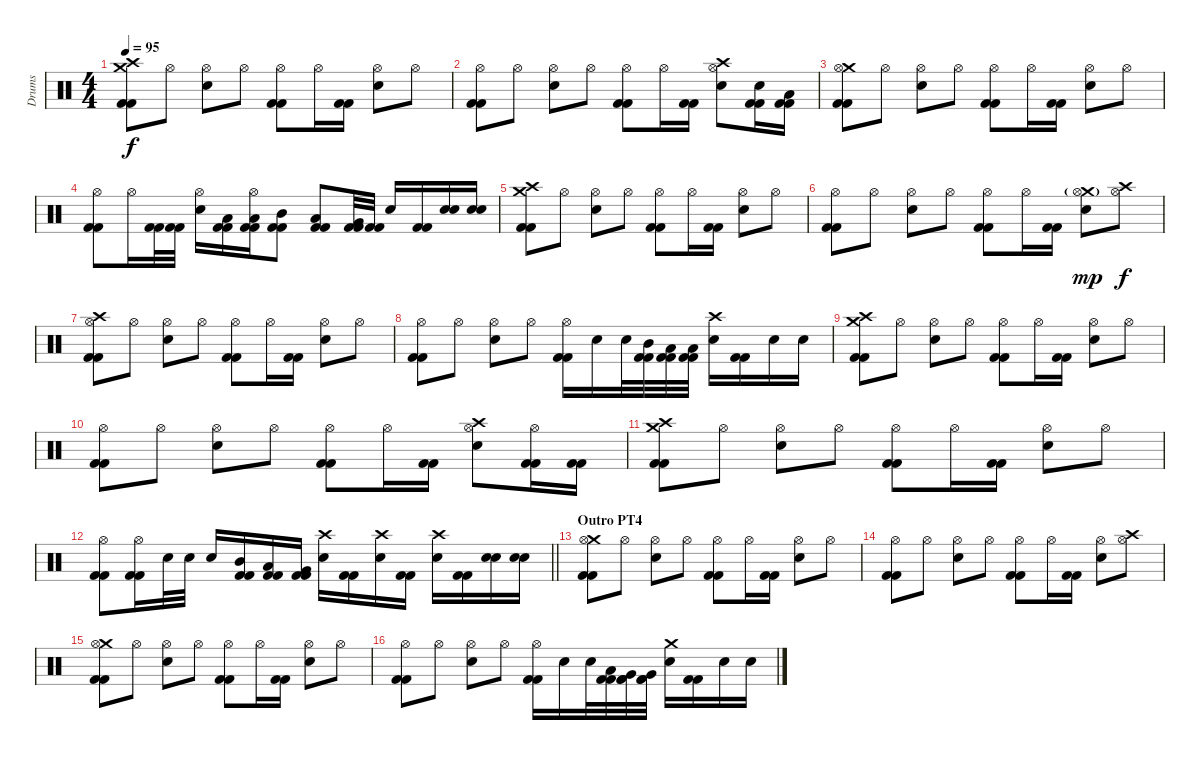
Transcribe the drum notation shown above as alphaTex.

\track ("Drums" "Drums") {instrument percussion}
\staff {score}
\articulation defaults
\ts (4 4)
\tempo 95
\clef neutral
\ks c
("Crash medium (hit)" "Crash high (hit)" "Kick (hit) 2" "Kick (hit) 2").8{dy f} "Hi-Hat (open)".8 ("Hi-Hat (open)" "Electric Snare (hit)").8 "Hi-Hat (open)".8 ("Hi-Hat (open)" "Kick (hit) 2" "Kick (hit) 2").8 "Hi-Hat (open)".16 ("Kick (hit) 2" "Kick (hit) 2").16 ("Hi-Hat (open)" "Electric Snare (hit)").8 "Hi-Hat (open)".8 |
("Hi-Hat (open)" "Kick (hit) 2" "Kick (hit) 2").8 "Hi-Hat (open)".8 ("Hi-Hat (open)" "Electric Snare (hit)").8 "Hi-Hat (open)".8 ("Hi-Hat (open)" "Kick (hit) 2" "Kick (hit) 2").8 "Hi-Hat (open)".16 ("Kick (hit) 2" "Kick (hit) 2").16 ("Crash high (hit)" "Hi-Hat (open)" "Electric Snare (hit)").8 ("Electric Snare (hit)" "Kick (hit) 2" "Kick (hit) 2").16 ("Low Tom (hit)" "Kick (hit) 2" "Kick (hit) 2").16 |
("Crash medium (hit)" "Hi-Hat (open)" "Kick (hit) 2" "Kick (hit) 2").8 "Hi-Hat (open)".8 ("Hi-Hat (open)" "Electric Snare (hit)").8 "Hi-Hat (open)".8 ("Hi-Hat (open)" "Kick (hit) 2" "Kick (hit) 2").8 "Hi-Hat (open)".16 ("Kick (hit) 2" "Kick (hit) 2").16 ("Hi-Hat (open)" "Electric Snare (hit)").8 "Hi-Hat (open)".8 |
("Hi-Hat (open)" "Kick (hit) 2" "Kick (hit) 2").8 "Hi-Hat (open)".16 ("Kick (hit) 2" "Kick (hit) 2").32 ("Kick (hit) 2" "Kick (hit) 2").32 ("Hi-Hat (open)" "Electric Snare (hit)").16 ("Low Tom (hit)" "Kick (hit) 2" "Kick (hit) 2").16 ("Hi-Hat (open)" "Low Tom (hit)" "Kick (hit) 2" "Kick (hit) 2").16 ("Mid Tom (hit)" "Kick (hit) 2" "Kick (hit) 2").8 ("Low Tom (hit)" "Kick (hit) 2" "Kick (hit) 2").8 ("Very Low Tom (hit)" "Kick (hit) 2" "Kick (hit) 2").32 ("Kick (hit) 2" "Kick (hit) 2").32 "Electric Snare (hit)".16 ("Kick (hit) 2" "Kick (hit) 2").16 ("Electric Snare (hit)" "Electric Snare (hit)").16 ("Electric Snare (hit)" "Electric Snare (hit)").16 |
("Crash medium (hit)" "Crash high (hit)" "Kick (hit) 2" "Kick (hit) 2").8 "Hi-Hat (open)".8 ("Hi-Hat (open)" "Electric Snare (hit)").8 "Hi-Hat (open)".8 ("Hi-Hat (open)" "Kick (hit) 2" "Kick (hit) 2").8 "Hi-Hat (open)".16 ("Kick (hit) 2" "Kick (hit) 2").16 ("Hi-Hat (open)" "Electric Snare (hit)").8 "Hi-Hat (open)".8 |
("Hi-Hat (open)" "Kick (hit) 2" "Kick (hit) 2").8 "Hi-Hat (open)".8 ("Hi-Hat (open)" "Electric Snare (hit)").8 "Hi-Hat (open)".8 ("Hi-Hat (open)" "Kick (hit) 2" "Kick (hit) 2").8 "Hi-Hat (open)".16 ("Kick (hit) 2" "Kick (hit) 2").16 ("Crash medium (hit)"{g} "Hi-Hat (open)" "Electric Snare (hit)").8{dy mp} ("Crash high (hit)" "Hi-Hat (open)").8{dy f} |
("Crash high (hit)" "Hi-Hat (open)" "Kick (hit) 2" "Kick (hit) 2").8 "Hi-Hat (open)".8 ("Hi-Hat (open)" "Electric Snare (hit)").8 "Hi-Hat (open)".8 ("Hi-Hat (open)" "Kick (hit) 2" "Kick (hit) 2").8 "Hi-Hat (open)".16 ("Kick (hit) 2" "Kick (hit) 2").16 ("Hi-Hat (open)" "Electric Snare (hit)").8 "Hi-Hat (open)".8 |
("Hi-Hat (open)" "Kick (hit) 2" "Kick (hit) 2").8 "Hi-Hat (open)".8 ("Hi-Hat (open)" "Electric Snare (hit)").8 "Hi-Hat (open)".8 ("Hi-Hat (open)" "Kick (hit) 2" "Kick (hit) 2").16 "Electric Snare (hit)".16 "Electric Snare (hit)".32 ("Mid Tom (hit)" "Kick (hit) 2" "Kick (hit) 2").32 ("Low Tom (hit)" "Kick (hit) 2" "Kick (hit) 2").32 ("Low Tom (hit)" "Kick (hit) 2" "Kick (hit) 2").32 ("Crash high (hit)" "Electric Snare (hit)").16 ("Kick (hit) 2" "Kick (hit) 2").16 "Electric Snare (hit)".16 "Electric Snare (hit)".16 |
("Crash medium (hit)" "Crash high (hit)" "Kick (hit) 2" "Kick (hit) 2").8 "Hi-Hat (open)".8 ("Hi-Hat (open)" "Electric Snare (hit)").8 "Hi-Hat (open)".8 ("Hi-Hat (open)" "Kick (hit) 2" "Kick (hit) 2").8 "Hi-Hat (open)".16 ("Kick (hit) 2" "Kick (hit) 2").16 ("Hi-Hat (open)" "Electric Snare (hit)").8 "Hi-Hat (open)".8 |
("Hi-Hat (open)" "Kick (hit) 2" "Kick (hit) 2").8 "Hi-Hat (open)".8 ("Hi-Hat (open)" "Electric Snare (hit)").8 "Hi-Hat (open)".8 ("Hi-Hat (open)" "Kick (hit) 2" "Kick (hit) 2").8 "Hi-Hat (open)".16 ("Kick (hit) 2" "Kick (hit) 2").16 ("Crash high (hit)" "Hi-Hat (open)" "Electric Snare (hit)").8 ("Hi-Hat (open)" "Kick (hit) 2" "Kick (hit) 2").16 ("Kick (hit) 2" "Kick (hit) 2").16 |
("Crash medium (hit)" "Crash high (hit)" "Kick (hit) 2" "Kick (hit) 2").8 "Hi-Hat (open)".8 ("Hi-Hat (open)" "Electric Snare (hit)").8 "Hi-Hat (open)".8 ("Hi-Hat (open)" "Kick (hit) 2" "Kick (hit) 2").8 "Hi-Hat (open)".16 ("Kick (hit) 2" "Kick (hit) 2").16 ("Hi-Hat (open)" "Electric Snare (hit)").8 "Hi-Hat (open)".8 |
\barLineRight lightlight
("Hi-Hat (open)" "Kick (hit) 2" "Kick (hit) 2").8 ("Hi-Hat (open)" "Kick (hit) 2" "Kick (hit) 2").16 "Electric Snare (hit)".32 "Electric Snare (hit)".32 "Electric Snare (hit)".16 ("Mid Tom (hit)" "Kick (hit) 2" "Kick (hit) 2").16 ("Low Tom (hit)" "Kick (hit) 2" "Kick (hit) 2").16 ("Very Low Tom (hit)" "Kick (hit) 2" "Kick (hit) 2").16 ("Crash high (hit)" "Electric Snare (hit)").16 ("Kick (hit) 2" "Kick (hit) 2").16 ("Crash high (hit)" "Electric Snare (hit)").16 ("Kick (hit) 2" "Kick (hit) 2").16 ("Crash high (hit)" "Electric Snare (hit)").16 ("Kick (hit) 2" "Kick (hit) 2").16 ("Electric Snare (hit)" "Electric Snare (hit)").16 ("Electric Snare (hit)" "Electric Snare (hit)").16 |
\section ("" "Outro PT4")
("Crash medium (hit)" "Hi-Hat (open)" "Kick (hit) 2" "Kick (hit) 2").8 "Hi-Hat (open)".8 ("Hi-Hat (open)" "Electric Snare (hit)").8 "Hi-Hat (open)".8 ("Hi-Hat (open)" "Kick (hit) 2" "Kick (hit) 2").8 "Hi-Hat (open)".16 ("Kick (hit) 2" "Kick (hit) 2").16 ("Hi-Hat (open)" "Electric Snare (hit)").8 "Hi-Hat (open)".8 |
("Hi-Hat (open)" "Kick (hit) 2" "Kick (hit) 2").8 "Hi-Hat (open)".8 ("Hi-Hat (open)" "Electric Snare (hit)").8 "Hi-Hat (open)".8 ("Hi-Hat (open)" "Kick (hit) 2" "Kick (hit) 2").8 "Hi-Hat (open)".16 ("Kick (hit) 2" "Kick (hit) 2").16 ("Hi-Hat (open)" "Electric Snare (hit)").8 ("Crash high (hit)" "Hi-Hat (open)").8 |
("Crash medium (hit)" "Hi-Hat (open)" "Kick (hit) 2" "Kick (hit) 2").8 "Hi-Hat (open)".8 ("Hi-Hat (open)" "Electric Snare (hit)").8 "Hi-Hat (open)".8 ("Hi-Hat (open)" "Kick (hit) 2" "Kick (hit) 2").8 "Hi-Hat (open)".16 ("Kick (hit) 2" "Kick (hit) 2").16 ("Hi-Hat (open)" "Electric Snare (hit)").8 "Hi-Hat (open)".8 |
("Hi-Hat (open)" "Kick (hit) 2" "Kick (hit) 2").8 "Hi-Hat (open)".8 ("Hi-Hat (open)" "Electric Snare (hit)").8 "Hi-Hat (open)".8 ("Hi-Hat (open)" "Kick (hit) 2" "Kick (hit) 2").16 "Electric Snare (hit)".16 "Electric Snare (hit)".32 ("Low Tom (hit)" "Kick (hit) 2" "Kick (hit) 2").32 ("Very Low Tom (hit)" "Kick (hit) 2" "Kick (hit) 2").32 ("Very Low Tom (hit)" "Kick (hit) 2" "Kick (hit) 2").32 ("Crash medium (hit)" "Electric Snare (hit)").16 ("Kick (hit) 2" "Kick (hit) 2").16 "Electric Snare (hit)".16 "Electric Snare (hit)".16
